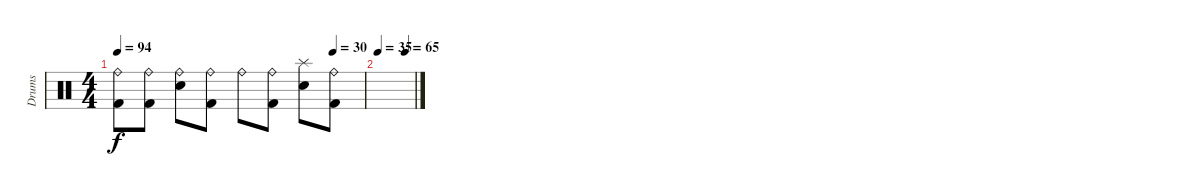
\track ("Drums" "Drums") {instrument percussion}
\staff {score}
\articulation defaults
\ts (4 4)
\tempo 94
\tempo (30 0.875)
\clef neutral
\ks c
("Ride (bell)" "Kick (hit) 2").8{dy f} ("Ride (bell)" "Kick (hit) 2").8 ("Ride (bell)" "Snare (hit) 2").8 ("Ride (bell)" "Kick (hit) 2").8 "Ride (bell)".8 ("Ride (bell)" "Kick (hit) 2").8 ("Splash (hit)" "Snare (hit) 2").8 ("Ride (bell)" "Kick (hit) 2").8 |
\tempo 35
\tempo (65 0.75)
